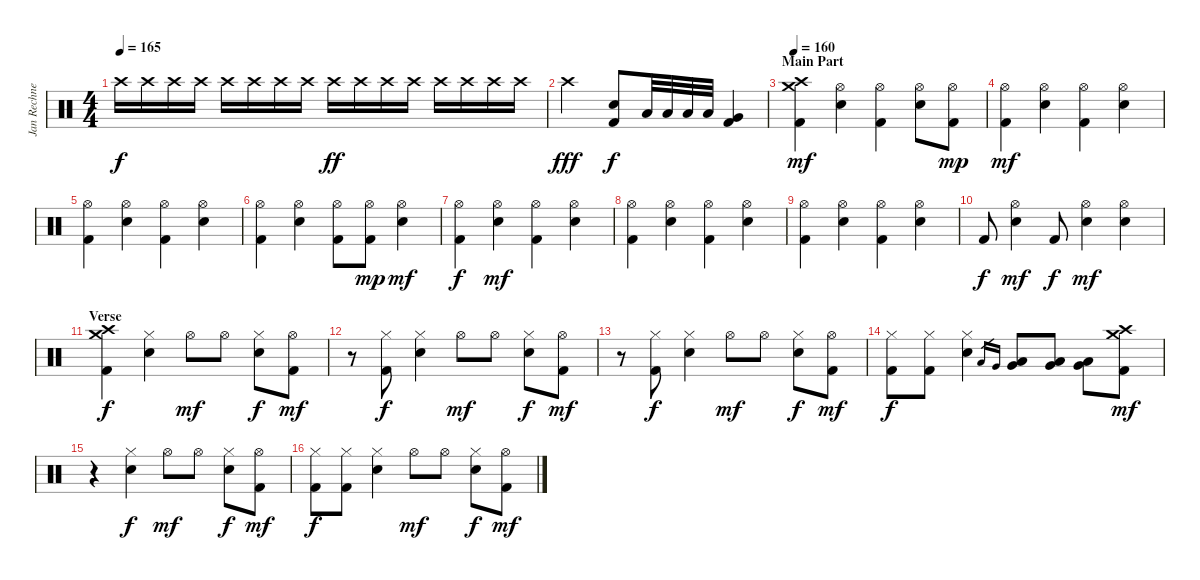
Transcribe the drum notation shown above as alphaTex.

\track ("Jan Rechnerger" "Jan Rechne") {instrument percussion}
\staff {score}
\articulation defaults
\ts (4 4)
\tempo 165
\clef neutral
\ks c "Crash high (hit)".16{dy f} "Crash high (hit)".16 "Crash high (hit)".16 "Crash high (hit)".16 "Crash high (hit)".16 "Crash high (hit)".16 "Crash high (hit)".16 "Crash high (hit)".16 "Crash high (hit)".16{dy ff} "Crash high (hit)".16 "Crash high (hit)".16 "Crash high (hit)".16 "Crash high (hit)".16 "Crash high (hit)".16 "Crash high (hit)".16 "Crash high (hit)".16
|
"Crash high (hit)".2{dy fff} ("Snare (hit) 2" "Kick (hit) 2").8{dy f} "Low Tom (hit)".32 "Low Tom (hit)".32 "Low Tom (hit)".32 "Low Tom (hit)".32 ("Very Low Tom (hit)" "Kick (hit) 2").4 |
\section ("" "Main Part")
\tempo 160
("Crash high (hit)" "Crash medium (hit)" "Kick (hit) 2").4{dy mf} ("Hi-Hat (open)" "Snare (hit) 2").4 ("Hi-Hat (open)" "Kick (hit) 2").4 ("Hi-Hat (open)" "Snare (hit) 2").8 ("Hi-Hat (open)" "Kick (hit) 2").8{dy mp} |
("Hi-Hat (open)" "Kick (hit) 2").4{dy mf} ("Hi-Hat (open)" "Snare (hit) 2").4 ("Hi-Hat (open)" "Kick (hit) 2").4 ("Hi-Hat (open)" "Snare (hit) 2").4 |
("Hi-Hat (open)" "Kick (hit) 2").4 ("Hi-Hat (open)" "Snare (hit) 2").4 ("Hi-Hat (open)" "Kick (hit) 2").4 ("Hi-Hat (open)" "Snare (hit) 2").4 |
("Hi-Hat (open)" "Kick (hit) 2").4 ("Hi-Hat (open)" "Snare (hit) 2").4 ("Hi-Hat (open)" "Kick (hit) 2").8 ("Hi-Hat (open)" "Kick (hit) 2").8{dy mp} ("Hi-Hat (open)" "Snare (hit) 2").4{dy mf} |
("Hi-Hat (open)" "Kick (hit) 2").4{dy f} ("Hi-Hat (open)" "Snare (hit) 2").4{dy mf} ("Hi-Hat (open)" "Kick (hit) 2").4 ("Hi-Hat (open)" "Snare (hit) 2").4 |
("Hi-Hat (open)" "Kick (hit) 2").4 ("Hi-Hat (open)" "Snare (hit) 2").4 ("Hi-Hat (open)" "Kick (hit) 2").4 ("Hi-Hat (open)" "Snare (hit) 2").4 |
("Hi-Hat (open)" "Kick (hit) 2").4 ("Hi-Hat (open)" "Snare (hit) 2").4 ("Hi-Hat (open)" "Kick (hit) 2").4 ("Hi-Hat (open)" "Snare (hit) 2").4 |
"Kick (hit) 2".8{dy f} ("Hi-Hat (open)" "Snare (hit) 2").4{dy mf} "Kick (hit) 2".8{dy f} ("Hi-Hat (open)" "Snare (hit) 2").4{dy mf} ("Hi-Hat (open)" "Snare (hit) 2").4 |
\section ("" "Verse")
("Crash high (hit)" "Crash medium (hit)" "Kick (hit) 2").4{dy f} ("Hi-Hat (closed)" "Snare (hit) 2").4 "Hi-Hat (open)".8{dy mf} "Hi-Hat (open)".8 ("Hi-Hat (closed)" "Snare (hit) 2").8{dy f} ("Hi-Hat (open)" "Kick (hit) 2").8{dy mf} |
r.8 ("Hi-Hat (closed)" "Kick (hit) 2").8{dy f} ("Hi-Hat (closed)" "Snare (hit) 2").4 "Hi-Hat (open)".8{dy mf} "Hi-Hat (open)".8 ("Hi-Hat (closed)" "Snare (hit) 2").8{dy f} ("Hi-Hat (open)" "Kick (hit) 2").8{dy mf} |
r.8 ("Hi-Hat (closed)" "Kick (hit) 2").8{dy f} ("Hi-Hat (closed)" "Snare (hit) 2").4 "Hi-Hat (open)".8{dy mf} "Hi-Hat (open)".8 ("Hi-Hat (closed)" "Snare (hit) 2").8{dy f} ("Hi-Hat (open)" "Kick (hit) 2").8{dy mf} |
("Hi-Hat (closed)" "Kick (hit) 2").8{dy f} ("Hi-Hat (closed)" "Kick (hit) 2").8 ("Hi-Hat (closed)" "Snare (hit) 2").4 "Low Tom (hit)".16{gr} "Very Low Tom (hit)".16{gr} ("Low Tom (hit)" "Very Low Tom (hit)").8 ("Low Tom (hit)" "Very Low Tom (hit)").8 ("Low Tom (hit)" "Very Low Tom (hit)").8 ("Crash high (hit)" "Crash medium (hit)" "Kick (hit) 2").8{dy mf} |
r.4 ("Hi-Hat (closed)" "Snare (hit) 2").4{dy f} "Hi-Hat (open)".8{dy mf} "Hi-Hat (open)".8 ("Hi-Hat (closed)" "Snare (hit) 2").8{dy f} ("Hi-Hat (open)" "Kick (hit) 2").8{dy mf} |
("Hi-Hat (closed)" "Kick (hit) 2").8{dy f} ("Hi-Hat (closed)" "Kick (hit) 2").8 ("Hi-Hat (closed)" "Snare (hit) 2").4 "Hi-Hat (open)".8{dy mf} "Hi-Hat (open)".8 ("Hi-Hat (closed)" "Snare (hit) 2").8{dy f} ("Hi-Hat (open)" "Kick (hit) 2").8{dy mf}
